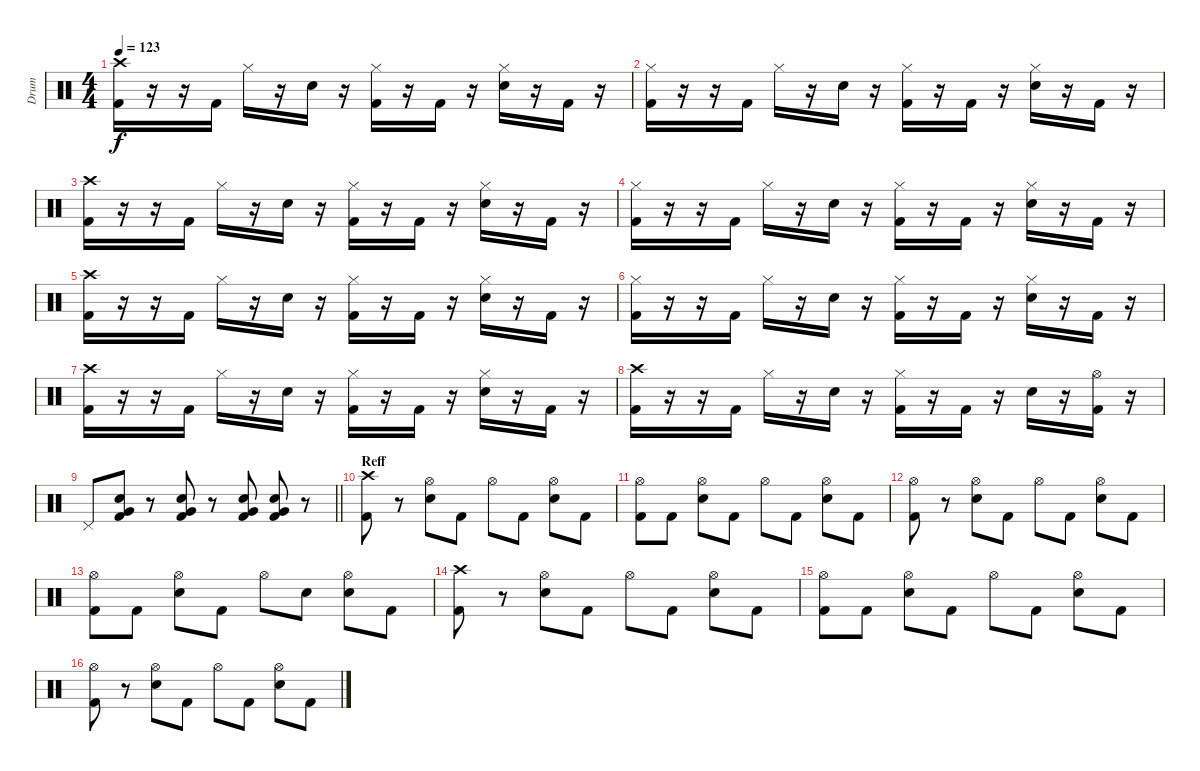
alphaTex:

\track ("Drum" "Drum") {instrument percussion}
\staff {score}
\articulation defaults
\ts (4 4)
\tempo 123
\clef neutral
\ks c
("Crash high (hit)" "Kick (hit) 2").16{dy f} r.16 r.16 "Kick (hit) 2".16 "Hi-Hat (closed)".16 r.16 "Electric Snare (hit)".16 r.16 ("Hi-Hat (closed)" "Kick (hit) 2").16 r.16 "Kick (hit) 2".16 r.16 ("Hi-Hat (closed)" "Electric Snare (hit)").16 r.16 "Kick (hit) 2".16 r.16 |
("Hi-Hat (closed)" "Kick (hit) 2").16 r.16 r.16 "Kick (hit) 2".16 "Hi-Hat (closed)".16 r.16 "Electric Snare (hit)".16 r.16 ("Hi-Hat (closed)" "Kick (hit) 2").16 r.16 "Kick (hit) 2".16 r.16 ("Hi-Hat (closed)" "Electric Snare (hit)").16 r.16 "Kick (hit) 2".16 r.16 |
("Crash high (hit)" "Kick (hit) 2").16 r.16 r.16 "Kick (hit) 2".16 "Hi-Hat (closed)".16 r.16 "Electric Snare (hit)".16 r.16 ("Hi-Hat (closed)" "Kick (hit) 2").16 r.16 "Kick (hit) 2".16 r.16 ("Hi-Hat (closed)" "Electric Snare (hit)").16 r.16 "Kick (hit) 2".16 r.16 |
("Hi-Hat (closed)" "Kick (hit) 2").16 r.16 r.16 "Kick (hit) 2".16 "Hi-Hat (closed)".16 r.16 "Electric Snare (hit)".16 r.16 ("Hi-Hat (closed)" "Kick (hit) 2").16 r.16 "Kick (hit) 2".16 r.16 ("Hi-Hat (closed)" "Electric Snare (hit)").16 r.16 "Kick (hit) 2".16 r.16 |
("Crash high (hit)" "Kick (hit) 2").16 r.16 r.16 "Kick (hit) 2".16 "Hi-Hat (closed)".16 r.16 "Electric Snare (hit)".16 r.16 ("Hi-Hat (closed)" "Kick (hit) 2").16 r.16 "Kick (hit) 2".16 r.16 ("Hi-Hat (closed)" "Electric Snare (hit)").16 r.16 "Kick (hit) 2".16 r.16 |
("Hi-Hat (closed)" "Kick (hit) 2").16 r.16 r.16 "Kick (hit) 2".16 "Hi-Hat (closed)".16 r.16 "Electric Snare (hit)".16 r.16 ("Hi-Hat (closed)" "Kick (hit) 2").16 r.16 "Kick (hit) 2".16 r.16 ("Hi-Hat (closed)" "Electric Snare (hit)").16 r.16 "Kick (hit) 2".16 r.16 |
("Crash high (hit)" "Kick (hit) 2").16 r.16 r.16 "Kick (hit) 2".16 "Hi-Hat (closed)".16 r.16 "Electric Snare (hit)".16 r.16 ("Hi-Hat (closed)" "Kick (hit) 2").16 r.16 "Kick (hit) 2".16 r.16 ("Hi-Hat (closed)" "Electric Snare (hit)").16 r.16 "Kick (hit) 2".16 r.16 |
("Crash high (hit)" "Kick (hit) 2").16 r.16 r.16 "Kick (hit) 2".16 "Hi-Hat (closed)".16 r.16 "Electric Snare (hit)".16 r.16 ("Hi-Hat (closed)" "Kick (hit) 2").16 r.16 "Kick (hit) 2".16 r.16 "Electric Snare (hit)".16 r.16 ("Hi-Hat (open)" "Kick (hit) 2").16 r.16 |
\barLineRight lightlight "Pedal Hi-Hat (hit)".8
("Electric Snare (hit)" "Very Low Tom (hit)" "Kick (hit) 2").8 r.8 ("Electric Snare (hit)" "Very Low Tom (hit)" "Kick (hit) 2").8 r.8 ("Electric Snare (hit)" "Very Low Tom (hit)" "Kick (hit) 2").8 ("Electric Snare (hit)" "Very Low Tom (hit)" "Kick (hit) 2").8 r.8 |
\section ("" "Reff")
("Crash high (hit)" "Kick (hit) 2").8 r.8 ("Hi-Hat (open)" "Electric Snare (hit)").8 "Kick (hit) 2".8 "Hi-Hat (open)".8 "Kick (hit) 2".8 ("Hi-Hat (open)" "Electric Snare (hit)").8 "Kick (hit) 2".8 |
("Hi-Hat (open)" "Kick (hit) 2").8 "Kick (hit) 2".8 ("Hi-Hat (open)" "Electric Snare (hit)").8 "Kick (hit) 2".8 "Hi-Hat (open)".8 "Kick (hit) 2".8 ("Hi-Hat (open)" "Electric Snare (hit)").8 "Kick (hit) 2".8 |
("Hi-Hat (open)" "Kick (hit) 2").8 r.8 ("Hi-Hat (open)" "Electric Snare (hit)").8 "Kick (hit) 2".8 "Hi-Hat (open)".8 "Kick (hit) 2".8 ("Hi-Hat (open)" "Electric Snare (hit)").8 "Kick (hit) 2".8 |
("Hi-Hat (open)" "Kick (hit) 2").8 "Kick (hit) 2".8 ("Hi-Hat (open)" "Electric Snare (hit)").8 "Kick (hit) 2".8 "Hi-Hat (open)".8 "Electric Snare (hit)".8 ("Hi-Hat (open)" "Electric Snare (hit)").8 "Kick (hit) 2".8 |
("Crash high (hit)" "Kick (hit) 2").8 r.8 ("Hi-Hat (open)" "Electric Snare (hit)").8 "Kick (hit) 2".8 "Hi-Hat (open)".8 "Kick (hit) 2".8 ("Hi-Hat (open)" "Electric Snare (hit)").8 "Kick (hit) 2".8 |
("Hi-Hat (open)" "Kick (hit) 2").8 "Kick (hit) 2".8 ("Hi-Hat (open)" "Electric Snare (hit)").8 "Kick (hit) 2".8 "Hi-Hat (open)".8 "Kick (hit) 2".8 ("Hi-Hat (open)" "Electric Snare (hit)").8 "Kick (hit) 2".8 |
("Hi-Hat (open)" "Kick (hit) 2").8 r.8 ("Hi-Hat (open)" "Electric Snare (hit)").8 "Kick (hit) 2".8 "Hi-Hat (open)".8 "Kick (hit) 2".8 ("Hi-Hat (open)" "Electric Snare (hit)").8 "Kick (hit) 2".8
